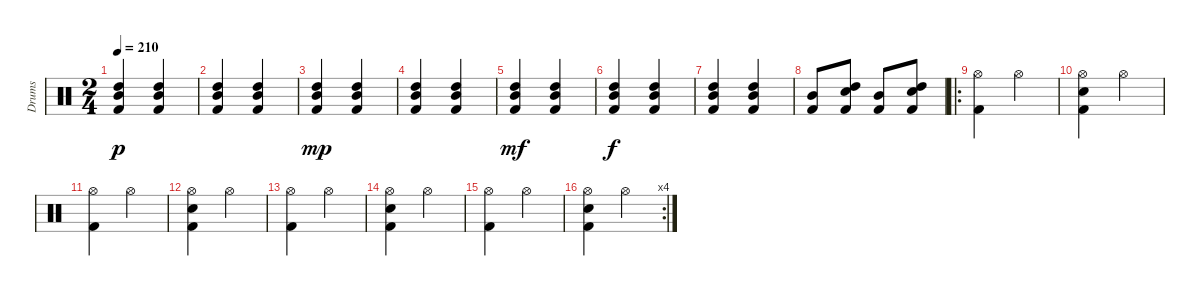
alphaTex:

\track ("Drums" "Drums") {instrument percussion}
\staff {score}
\articulation defaults
\ts (2 4)
\tempo 210
\clef neutral
\ks c
("Mid Tom (hit)" "High Tom (hit)" "Kick (hit) 2").4{dy p} ("Mid Tom (hit)" "High Tom (hit)" "Kick (hit) 2").4 |
("Mid Tom (hit)" "High Tom (hit)" "Kick (hit) 2").4 ("Mid Tom (hit)" "High Tom (hit)" "Kick (hit) 2").4 |
("Mid Tom (hit)" "High Tom (hit)" "Kick (hit) 2").4{dy mp} ("Mid Tom (hit)" "High Tom (hit)" "Kick (hit) 2").4 |
("Mid Tom (hit)" "High Tom (hit)" "Kick (hit) 2").4 ("Mid Tom (hit)" "High Tom (hit)" "Kick (hit) 2").4 |
("Mid Tom (hit)" "High Tom (hit)" "Kick (hit) 2").4{dy mf} ("Mid Tom (hit)" "High Tom (hit)" "Kick (hit) 2").4 |
("Mid Tom (hit)" "High Tom (hit)" "Kick (hit) 2").4{dy f} ("Mid Tom (hit)" "High Tom (hit)" "Kick (hit) 2").4 |
("Mid Tom (hit)" "High Tom (hit)" "Kick (hit) 2").4 ("Mid Tom (hit)" "High Tom (hit)" "Kick (hit) 2").4 |
("Mid Tom (hit)" "Kick (hit) 2").8 ("Electric Snare (hit)" "High Tom (hit)" "Kick (hit) 2").8 ("Mid Tom (hit)" "Kick (hit) 2").8 ("Electric Snare (hit)" "High Tom (hit)" "Kick (hit) 2").8 |
\ro
("Hi-Hat (open)" "Kick (hit) 2").4 "Hi-Hat (open)".4 |
("Hi-Hat (open)" "Electric Snare (hit)" "Kick (hit) 2").4 "Hi-Hat (open)".4 |
("Hi-Hat (open)" "Kick (hit) 2").4 "Hi-Hat (open)".4 |
("Hi-Hat (open)" "Electric Snare (hit)" "Kick (hit) 2").4 "Hi-Hat (open)".4 |
("Hi-Hat (open)" "Kick (hit) 2").4 "Hi-Hat (open)".4 |
("Hi-Hat (open)" "Electric Snare (hit)" "Kick (hit) 2").4 "Hi-Hat (open)".4 |
("Hi-Hat (open)" "Kick (hit) 2").4 "Hi-Hat (open)".4 |
\rc 4
("Hi-Hat (open)" "Electric Snare (hit)" "Kick (hit) 2").4 "Hi-Hat (open)".4
